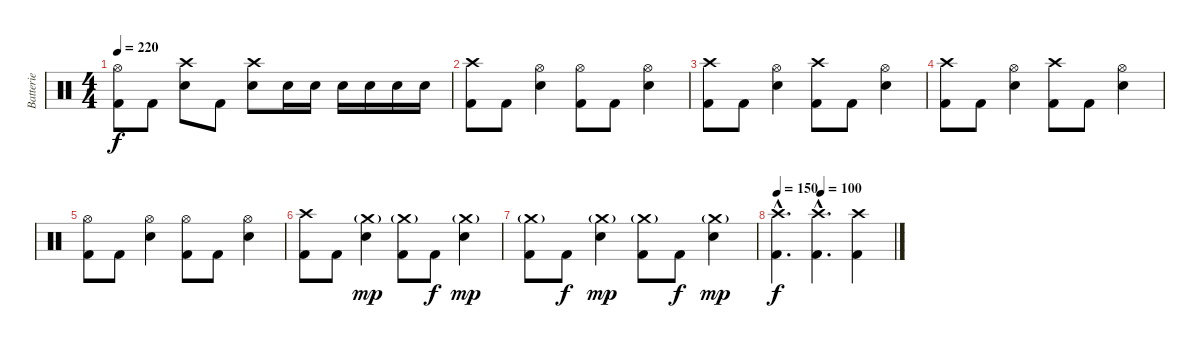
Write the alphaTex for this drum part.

\track ("Batterie" "Batterie") {instrument percussion}
\staff {score}
\articulation defaults
\ts (4 4)
\tempo 220
\clef neutral
\ks c
("Hi-Hat (open)" "Kick (hit) 2").8{dy f} "Kick (hit) 2".8 ("Crash high (hit)" "Electric Snare (hit)").8 "Kick (hit) 2".8 ("Crash high (hit)" "Electric Snare (hit)").8 "Electric Snare (hit)".16 "Electric Snare (hit)".16 "Electric Snare (hit)".16 "Electric Snare (hit)".16 "Electric Snare (hit)".16 "Electric Snare (hit)".16 |
("Crash high (hit)" "Kick (hit) 2").8 "Kick (hit) 2".8 ("Hi-Hat (open)" "Electric Snare (hit)").4 ("Hi-Hat (open)" "Kick (hit) 2").8 "Kick (hit) 2".8 ("Hi-Hat (open)" "Electric Snare (hit)").4 |
("Crash high (hit)" "Kick (hit) 2").8 "Kick (hit) 2".8 ("Hi-Hat (open)" "Electric Snare (hit)").4 ("Crash high (hit)" "Kick (hit) 2").8 "Kick (hit) 2".8 ("Hi-Hat (open)" "Electric Snare (hit)").4 |
("Crash high (hit)" "Kick (hit) 2").8 "Kick (hit) 2".8 ("Hi-Hat (open)" "Electric Snare (hit)").4 ("Crash high (hit)" "Kick (hit) 2").8 "Kick (hit) 2".8 ("Hi-Hat (open)" "Electric Snare (hit)").4 |
("Hi-Hat (open)" "Kick (hit) 2").8 "Kick (hit) 2".8 ("Hi-Hat (open)" "Electric Snare (hit)").4 ("Hi-Hat (open)" "Kick (hit) 2").8 "Kick (hit) 2".8 ("Hi-Hat (open)" "Electric Snare (hit)").4 |
("Crash high (hit)" "Kick (hit) 2").8 "Kick (hit) 2".8 ("Crash medium (hit)"{g} "Electric Snare (hit)").4{dy mp} ("Crash medium (hit)"{g} "Kick (hit) 2").8 "Kick (hit) 2".8{dy f} ("Crash medium (hit)"{g} "Electric Snare (hit)").4{dy mp} |
("Crash medium (hit)"{g} "Kick (hit) 2").8 "Kick (hit) 2".8{dy f} ("Crash medium (hit)"{g} "Electric Snare (hit)").4{dy mp} ("Crash medium (hit)"{g} "Kick (hit) 2").8 "Kick (hit) 2".8{dy f} ("Crash medium (hit)"{g} "Electric Snare (hit)").4{dy mp} |
\tempo 150
\tempo (100 0.375)
("Crash high (hit)"{hac} "Kick (hit) 2"{hac}).4{d dy f} ("Crash high (hit)"{hac} "Kick (hit) 2"{hac}).4{d} ("Crash high (hit)" "Kick (hit) 2").4
